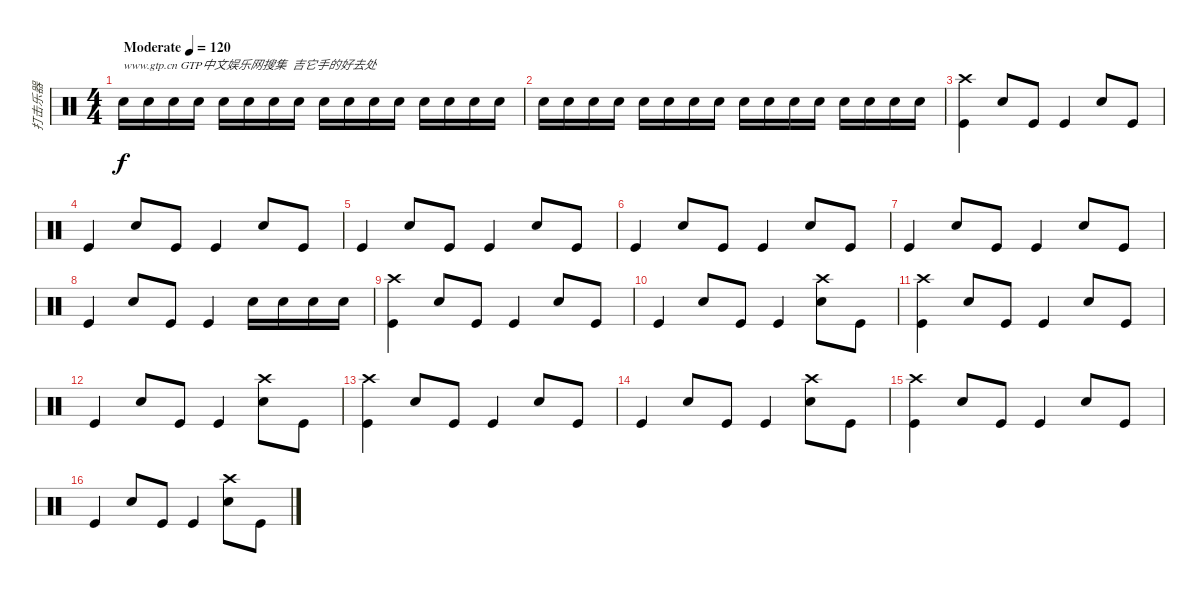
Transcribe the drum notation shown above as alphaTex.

\track ("打击乐器" "打击乐器") {instrument percussion}
\staff {score}
\articulation defaults
\ts (4 4)
\tempo (120 "Moderate")
\clef neutral
\ks c "Electric Snare (hit)".16{txt "www.gtp.cn GTP中文娱乐网搜集  吉它手的好去处" dy f} "Electric Snare (hit)".16 "Electric Snare (hit)".16 "Electric Snare (hit)".16 "Electric Snare (hit)".16 "Electric Snare (hit)".16 "Electric Snare (hit)".16 "Electric Snare (hit)".16 "Electric Snare (hit)".16 "Electric Snare (hit)".16 "Electric Snare (hit)".16 "Electric Snare (hit)".16 "Electric Snare (hit)".16 "Electric Snare (hit)".16 "Electric Snare (hit)".16 "Electric Snare (hit)".16
|
"Electric Snare (hit)".16 "Electric Snare (hit)".16 "Electric Snare (hit)".16 "Electric Snare (hit)".16 "Electric Snare (hit)".16 "Electric Snare (hit)".16 "Electric Snare (hit)".16 "Electric Snare (hit)".16 "Electric Snare (hit)".16 "Electric Snare (hit)".16 "Electric Snare (hit)".16 "Electric Snare (hit)".16 "Electric Snare (hit)".16 "Electric Snare (hit)".16 "Electric Snare (hit)".16 "Electric Snare (hit)".16 |
("Kick (hit)" "Crash high (hit)").4 "Electric Snare (hit)".8 "Kick (hit)".8 "Kick (hit)".4 "Electric Snare (hit)".8 "Kick (hit)".8 |
"Kick (hit)".4 "Electric Snare (hit)".8 "Kick (hit)".8 "Kick (hit)".4 "Electric Snare (hit)".8 "Kick (hit)".8 |
"Kick (hit)".4 "Electric Snare (hit)".8 "Kick (hit)".8 "Kick (hit)".4 "Electric Snare (hit)".8 "Kick (hit)".8 |
"Kick (hit)".4 "Electric Snare (hit)".8 "Kick (hit)".8 "Kick (hit)".4 "Electric Snare (hit)".8 "Kick (hit)".8 |
"Kick (hit)".4 "Electric Snare (hit)".8 "Kick (hit)".8 "Kick (hit)".4 "Electric Snare (hit)".8 "Kick (hit)".8 |
"Kick (hit)".4 "Electric Snare (hit)".8 "Kick (hit)".8 "Kick (hit)".4 "Electric Snare (hit)".16 "Electric Snare (hit)".16 "Electric Snare (hit)".16 "Electric Snare (hit)".16 |
("Kick (hit)" "Crash high (hit)").4 "Electric Snare (hit)".8 "Kick (hit)".8 "Kick (hit)".4 "Electric Snare (hit)".8 "Kick (hit)".8 |
"Kick (hit)".4 "Electric Snare (hit)".8 "Kick (hit)".8 "Kick (hit)".4 ("Electric Snare (hit)" "Crash high (hit)").8 "Kick (hit)".8 |
("Kick (hit)" "Crash high (hit)").4 "Electric Snare (hit)".8 "Kick (hit)".8 "Kick (hit)".4 "Electric Snare (hit)".8 "Kick (hit)".8 |
"Kick (hit)".4 "Electric Snare (hit)".8 "Kick (hit)".8 "Kick (hit)".4 ("Electric Snare (hit)" "Crash high (hit)").8 "Kick (hit)".8 |
("Kick (hit)" "Crash high (hit)").4 "Electric Snare (hit)".8 "Kick (hit)".8 "Kick (hit)".4 "Electric Snare (hit)".8 "Kick (hit)".8 |
"Kick (hit)".4 "Electric Snare (hit)".8 "Kick (hit)".8 "Kick (hit)".4 ("Electric Snare (hit)" "Crash high (hit)").8 "Kick (hit)".8 |
("Kick (hit)" "Crash high (hit)").4 "Electric Snare (hit)".8 "Kick (hit)".8 "Kick (hit)".4 "Electric Snare (hit)".8 "Kick (hit)".8 |
"Kick (hit)".4 "Electric Snare (hit)".8 "Kick (hit)".8 "Kick (hit)".4 ("Electric Snare (hit)" "Crash high (hit)").8 "Kick (hit)".8
